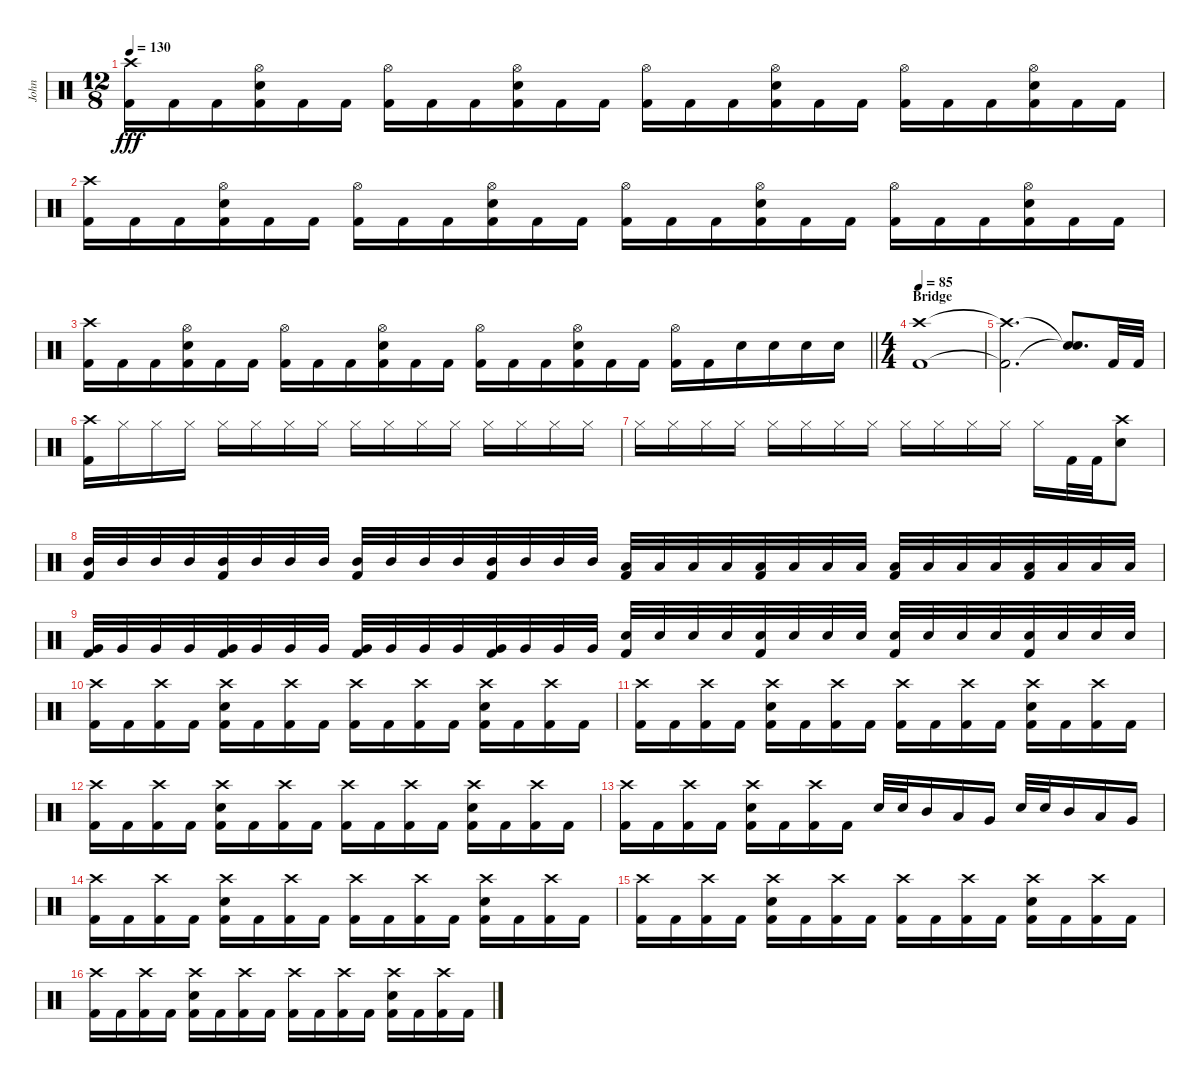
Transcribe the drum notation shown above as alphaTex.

\track ("John" "John") {instrument percussion}
\staff {score}
\articulation defaults
\ts (12 8)
\tempo 130
\clef neutral
\ks c
("Crash high (hit)" "Kick (hit) 2").16{dy fff} "Kick (hit) 2".16 "Kick (hit) 2".16 ("Hi-Hat (open)" "Electric Snare (hit)" "Kick (hit) 2").16 "Kick (hit) 2".16 "Kick (hit) 2".16 ("Hi-Hat (open)" "Kick (hit) 2").16 "Kick (hit) 2".16 "Kick (hit) 2".16 ("Hi-Hat (open)" "Electric Snare (hit)" "Kick (hit) 2").16 "Kick (hit) 2".16 "Kick (hit) 2".16 ("Hi-Hat (open)" "Kick (hit) 2").16 "Kick (hit) 2".16 "Kick (hit) 2".16 ("Hi-Hat (open)" "Electric Snare (hit)" "Kick (hit) 2").16 "Kick (hit) 2".16 "Kick (hit) 2".16 ("Hi-Hat (open)" "Kick (hit) 2").16 "Kick (hit) 2".16 "Kick (hit) 2".16 ("Hi-Hat (open)" "Electric Snare (hit)" "Kick (hit) 2").16 "Kick (hit) 2".16 "Kick (hit) 2".16 |
("Crash high (hit)" "Kick (hit) 2").16 "Kick (hit) 2".16 "Kick (hit) 2".16 ("Hi-Hat (open)" "Electric Snare (hit)" "Kick (hit) 2").16 "Kick (hit) 2".16 "Kick (hit) 2".16 ("Hi-Hat (open)" "Kick (hit) 2").16 "Kick (hit) 2".16 "Kick (hit) 2".16 ("Hi-Hat (open)" "Electric Snare (hit)" "Kick (hit) 2").16 "Kick (hit) 2".16 "Kick (hit) 2".16 ("Hi-Hat (open)" "Kick (hit) 2").16 "Kick (hit) 2".16 "Kick (hit) 2".16 ("Hi-Hat (open)" "Electric Snare (hit)" "Kick (hit) 2").16 "Kick (hit) 2".16 "Kick (hit) 2".16 ("Hi-Hat (open)" "Kick (hit) 2").16 "Kick (hit) 2".16 "Kick (hit) 2".16 ("Hi-Hat (open)" "Electric Snare (hit)" "Kick (hit) 2").16 "Kick (hit) 2".16 "Kick (hit) 2".16 |
\barLineRight lightlight
("Crash high (hit)" "Kick (hit) 2").16 "Kick (hit) 2".16 "Kick (hit) 2".16 ("Hi-Hat (open)" "Electric Snare (hit)" "Kick (hit) 2").16 "Kick (hit) 2".16 "Kick (hit) 2".16 ("Hi-Hat (open)" "Kick (hit) 2").16 "Kick (hit) 2".16 "Kick (hit) 2".16 ("Hi-Hat (open)" "Electric Snare (hit)" "Kick (hit) 2").16 "Kick (hit) 2".16 "Kick (hit) 2".16 ("Hi-Hat (open)" "Kick (hit) 2").16 "Kick (hit) 2".16 "Kick (hit) 2".16 ("Hi-Hat (open)" "Electric Snare (hit)" "Kick (hit) 2").16 "Kick (hit) 2".16 "Kick (hit) 2".16 ("Hi-Hat (open)" "Kick (hit) 2").16 "Kick (hit) 2".16 "Electric Snare (hit)".16 "Electric Snare (hit)".16 "Electric Snare (hit)".16 "Electric Snare (hit)".16 |
\ts (4 4)
\section ("" "Bridge")
\tempo 85
("Crash high (hit)" "Kick (hit) 2").1 |
("Crash high (hit)"{t} "Kick (hit) 2"{t}).2{d} ("Snare (hit)"{t} "Snare (hit)"{t}).8{d} "Kick (hit) 2".32 "Kick (hit) 2".32 |
("Crash high (hit)" "Kick (hit) 2").16 "Hi-Hat (closed)".16 "Hi-Hat (closed)".16 "Hi-Hat (closed)".16 "Hi-Hat (closed)".16 "Hi-Hat (closed)".16 "Hi-Hat (closed)".16 "Hi-Hat (closed)".16 "Hi-Hat (closed)".16 "Hi-Hat (closed)".16 "Hi-Hat (closed)".16 "Hi-Hat (closed)".16 "Hi-Hat (closed)".16 "Hi-Hat (closed)".16 "Hi-Hat (closed)".16 "Hi-Hat (closed)".16 |
"Hi-Hat (closed)".16 "Hi-Hat (closed)".16 "Hi-Hat (closed)".16 "Hi-Hat (closed)".16 "Hi-Hat (closed)".16 "Hi-Hat (closed)".16 "Hi-Hat (closed)".16 "Hi-Hat (closed)".16 "Hi-Hat (closed)".16 "Hi-Hat (closed)".16 "Hi-Hat (closed)".16 "Hi-Hat (closed)".16 "Hi-Hat (closed)".16 "Kick (hit) 2".32 "Kick (hit) 2".32 ("Crash high (hit)" "Electric Snare (hit)").8 |
("Mid Tom (hit)" "Kick (hit) 2").32 "Mid Tom (hit)".32 "Mid Tom (hit)".32 "Mid Tom (hit)".32 ("Mid Tom (hit)" "Kick (hit) 2").32 "Mid Tom (hit)".32 "Mid Tom (hit)".32 "Mid Tom (hit)".32 ("Mid Tom (hit)" "Kick (hit) 2").32 "Mid Tom (hit)".32 "Mid Tom (hit)".32 "Mid Tom (hit)".32 ("Mid Tom (hit)" "Kick (hit) 2").32 "Mid Tom (hit)".32 "Mid Tom (hit)".32 "Mid Tom (hit)".32 ("Low Tom (hit)" "Kick (hit) 2").32 "Low Tom (hit)".32 "Low Tom (hit)".32 "Low Tom (hit)".32 ("Low Tom (hit)" "Kick (hit) 2").32 "Low Tom (hit)".32 "Low Tom (hit)".32 "Low Tom (hit)".32 ("Low Tom (hit)" "Kick (hit) 2").32 "Low Tom (hit)".32 "Low Tom (hit)".32 "Low Tom (hit)".32 ("Low Tom (hit)" "Kick (hit) 2").32 "Low Tom (hit)".32 "Low Tom (hit)".32 "Low Tom (hit)".32 |
("Very Low Tom (hit)" "Kick (hit) 2").32 "Very Low Tom (hit)".32 "Very Low Tom (hit)".32 "Very Low Tom (hit)".32 ("Very Low Tom (hit)" "Kick (hit) 2").32 "Very Low Tom (hit)".32 "Very Low Tom (hit)".32 "Very Low Tom (hit)".32 ("Very Low Tom (hit)" "Kick (hit) 2").32 "Very Low Tom (hit)".32 "Very Low Tom (hit)".32 "Very Low Tom (hit)".32 ("Very Low Tom (hit)" "Kick (hit) 2").32 "Very Low Tom (hit)".32 "Very Low Tom (hit)".32 "Very Low Tom (hit)".32 ("Electric Snare (hit)" "Kick (hit) 2").32 "Electric Snare (hit)".32 "Electric Snare (hit)".32 "Electric Snare (hit)".32 ("Electric Snare (hit)" "Kick (hit) 2").32 "Electric Snare (hit)".32 "Electric Snare (hit)".32 "Electric Snare (hit)".32 ("Electric Snare (hit)" "Kick (hit) 2").32 "Electric Snare (hit)".32 "Electric Snare (hit)".32 "Electric Snare (hit)".32 ("Electric Snare (hit)" "Kick (hit) 2").32 "Electric Snare (hit)".32 "Electric Snare (hit)".32 "Electric Snare (hit)".32 |
("Crash high (hit)" "Kick (hit) 2").16 "Kick (hit) 2".16 ("Crash high (hit)" "Kick (hit) 2").16 "Kick (hit) 2".16 ("Crash high (hit)" "Electric Snare (hit)" "Kick (hit) 2").16 "Kick (hit) 2".16 ("Crash high (hit)" "Kick (hit) 2").16 "Kick (hit) 2".16 ("Crash high (hit)" "Kick (hit) 2").16 "Kick (hit) 2".16 ("Crash high (hit)" "Kick (hit) 2").16 "Kick (hit) 2".16 ("Crash high (hit)" "Electric Snare (hit)" "Kick (hit) 2").16 "Kick (hit) 2".16 ("Crash high (hit)" "Kick (hit) 2").16 "Kick (hit) 2".16 |
("Crash high (hit)" "Kick (hit) 2").16 "Kick (hit) 2".16 ("Crash high (hit)" "Kick (hit) 2").16 "Kick (hit) 2".16 ("Crash high (hit)" "Electric Snare (hit)" "Kick (hit) 2").16 "Kick (hit) 2".16 ("Crash high (hit)" "Kick (hit) 2").16 "Kick (hit) 2".16 ("Crash high (hit)" "Kick (hit) 2").16 "Kick (hit) 2".16 ("Crash high (hit)" "Kick (hit) 2").16 "Kick (hit) 2".16 ("Crash high (hit)" "Electric Snare (hit)" "Kick (hit) 2").16 "Kick (hit) 2".16 ("Crash high (hit)" "Kick (hit) 2").16 "Kick (hit) 2".16 |
("Crash high (hit)" "Kick (hit) 2").16 "Kick (hit) 2".16 ("Crash high (hit)" "Kick (hit) 2").16 "Kick (hit) 2".16 ("Crash high (hit)" "Electric Snare (hit)" "Kick (hit) 2").16 "Kick (hit) 2".16 ("Crash high (hit)" "Kick (hit) 2").16 "Kick (hit) 2".16 ("Crash high (hit)" "Kick (hit) 2").16 "Kick (hit) 2".16 ("Crash high (hit)" "Kick (hit) 2").16 "Kick (hit) 2".16 ("Crash high (hit)" "Electric Snare (hit)" "Kick (hit) 2").16 "Kick (hit) 2".16 ("Crash high (hit)" "Kick (hit) 2").16 "Kick (hit) 2".16 |
("Crash high (hit)" "Kick (hit) 2").16 "Kick (hit) 2".16 ("Crash high (hit)" "Kick (hit) 2").16 "Kick (hit) 2".16 ("Crash high (hit)" "Electric Snare (hit)" "Kick (hit) 2").16 "Kick (hit) 2".16 ("Crash high (hit)" "Kick (hit) 2").16 "Kick (hit) 2".16 "Electric Snare (hit)".32 "Electric Snare (hit)".32 "Mid Tom (hit)".16 "Low Tom (hit)".16 "Very Low Tom (hit)".16 "Electric Snare (hit)".32 "Electric Snare (hit)".32 "Mid Tom (hit)".16 "Low Tom (hit)".16 "Very Low Tom (hit)".16 |
("Crash high (hit)" "Kick (hit) 2").16 "Kick (hit) 2".16 ("Crash high (hit)" "Kick (hit) 2").16 "Kick (hit) 2".16 ("Crash high (hit)" "Electric Snare (hit)" "Kick (hit) 2").16 "Kick (hit) 2".16 ("Crash high (hit)" "Kick (hit) 2").16 "Kick (hit) 2".16 ("Crash high (hit)" "Kick (hit) 2").16 "Kick (hit) 2".16 ("Crash high (hit)" "Kick (hit) 2").16 "Kick (hit) 2".16 ("Crash high (hit)" "Electric Snare (hit)" "Kick (hit) 2").16 "Kick (hit) 2".16 ("Crash high (hit)" "Kick (hit) 2").16 "Kick (hit) 2".16 |
("Crash high (hit)" "Kick (hit) 2").16 "Kick (hit) 2".16 ("Crash high (hit)" "Kick (hit) 2").16 "Kick (hit) 2".16 ("Crash high (hit)" "Electric Snare (hit)" "Kick (hit) 2").16 "Kick (hit) 2".16 ("Crash high (hit)" "Kick (hit) 2").16 "Kick (hit) 2".16 ("Crash high (hit)" "Kick (hit) 2").16 "Kick (hit) 2".16 ("Crash high (hit)" "Kick (hit) 2").16 "Kick (hit) 2".16 ("Crash high (hit)" "Electric Snare (hit)" "Kick (hit) 2").16 "Kick (hit) 2".16 ("Crash high (hit)" "Kick (hit) 2").16 "Kick (hit) 2".16 |
("Crash high (hit)" "Kick (hit) 2").16 "Kick (hit) 2".16 ("Crash high (hit)" "Kick (hit) 2").16 "Kick (hit) 2".16 ("Crash high (hit)" "Electric Snare (hit)" "Kick (hit) 2").16 "Kick (hit) 2".16 ("Crash high (hit)" "Kick (hit) 2").16 "Kick (hit) 2".16 ("Crash high (hit)" "Kick (hit) 2").16 "Kick (hit) 2".16 ("Crash high (hit)" "Kick (hit) 2").16 "Kick (hit) 2".16 ("Crash high (hit)" "Electric Snare (hit)" "Kick (hit) 2").16 "Kick (hit) 2".16 ("Crash high (hit)" "Kick (hit) 2").16 "Kick (hit) 2".16
